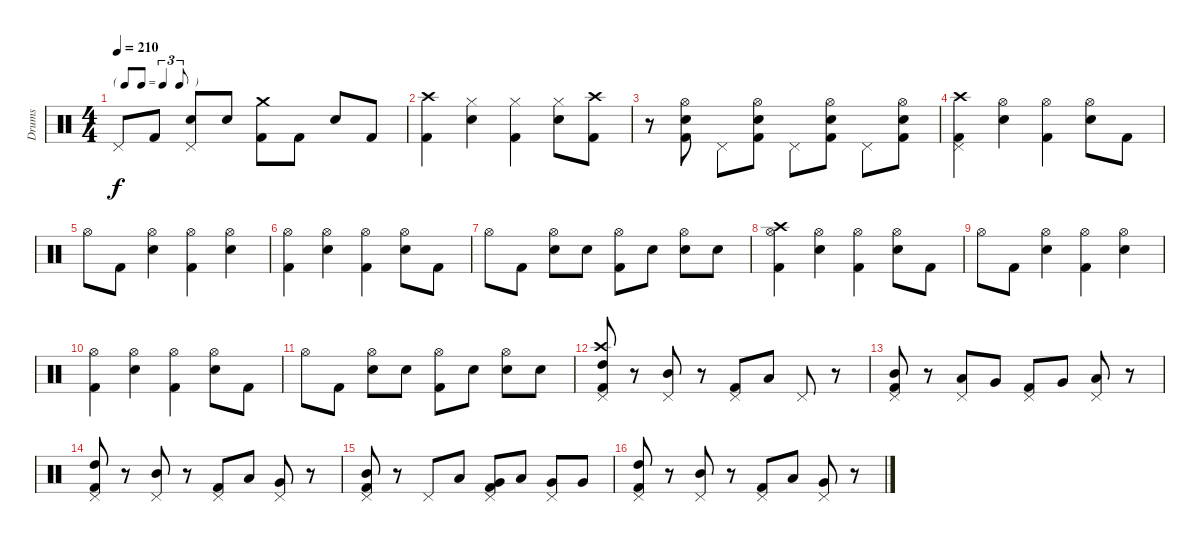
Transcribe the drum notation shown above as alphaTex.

\track ("Drums" "Drums") {instrument percussion}
\staff {score}
\articulation defaults
\ts (4 4)
\tf triplet8th
\tempo 210
\clef neutral
\ks c "Pedal Hi-Hat (hit)".8{dy f} "Kick (hit) 2".8
("Pedal Hi-Hat (hit)" "Snare (hit) 2").8 "Snare (hit) 2".8 ("Crash medium (hit)" "Kick (hit) 2").8 "Kick (hit) 2".8 "Snare (hit) 2".8 "Kick (hit) 2".8 |
("Crash high (hit)" "Kick (hit) 2").4 ("Hi-Hat (closed)" "Snare (hit) 2").4 ("Hi-Hat (closed)" "Kick (hit) 2").4 ("Hi-Hat (closed)" "Snare (hit) 2").8 ("Crash high (hit)" "Kick (hit) 2").8 |
r.8 ("Hi-Hat (open)" "Snare (hit) 2" "Kick (hit) 2").8 "Pedal Hi-Hat (hit)".8 ("Hi-Hat (open)" "Snare (hit) 2" "Kick (hit) 2").8 "Pedal Hi-Hat (hit)".8 ("Hi-Hat (open)" "Snare (hit) 2" "Kick (hit) 2").8 "Pedal Hi-Hat (hit)".8 ("Hi-Hat (open)" "Snare (hit) 2" "Kick (hit) 2").8 |
("Crash high (hit)" "Pedal Hi-Hat (hit)" "Kick (hit) 2").4 ("Hi-Hat (open)" "Snare (hit) 2").4 ("Hi-Hat (open)" "Kick (hit) 2").4 ("Hi-Hat (open)" "Snare (hit) 2").8 "Kick (hit) 2".8 |
"Hi-Hat (open)".8 "Kick (hit) 2".8 ("Hi-Hat (open)" "Snare (hit) 2").4 ("Hi-Hat (open)" "Kick (hit) 2").4 ("Hi-Hat (open)" "Snare (hit) 2").4 |
("Hi-Hat (open)" "Kick (hit) 2").4 ("Hi-Hat (open)" "Snare (hit) 2").4 ("Hi-Hat (open)" "Kick (hit) 2").4 ("Hi-Hat (open)" "Snare (hit) 2").8 "Kick (hit) 2".8 |
"Hi-Hat (open)".8 "Kick (hit) 2".8 ("Hi-Hat (open)" "Snare (hit) 2").8 "Snare (hit) 2".8 ("Hi-Hat (open)" "Kick (hit) 2").8 "Snare (hit) 2".8 ("Hi-Hat (open)" "Snare (hit) 2").8 "Snare (hit) 2".8 |
("Crash high (hit)" "Hi-Hat (open)" "Kick (hit) 2").4 ("Hi-Hat (open)" "Snare (hit) 2").4 ("Hi-Hat (open)" "Kick (hit) 2").4 ("Hi-Hat (open)" "Snare (hit) 2").8 "Kick (hit) 2".8 |
"Hi-Hat (open)".8 "Kick (hit) 2".8 ("Hi-Hat (open)" "Snare (hit) 2").4 ("Hi-Hat (open)" "Kick (hit) 2").4 ("Hi-Hat (open)" "Snare (hit) 2").4 |
("Hi-Hat (open)" "Kick (hit) 2").4 ("Hi-Hat (open)" "Snare (hit) 2").4 ("Hi-Hat (open)" "Kick (hit) 2").4 ("Hi-Hat (open)" "Snare (hit) 2").8 "Kick (hit) 2".8 |
"Hi-Hat (open)".8 "Kick (hit) 2".8 ("Hi-Hat (open)" "Snare (hit) 2").8 "Snare (hit) 2".8 ("Hi-Hat (open)" "Kick (hit) 2").8 "Snare (hit) 2".8 ("Hi-Hat (open)" "Snare (hit) 2").8 "Snare (hit) 2".8 |
("Crash high (hit)" "Pedal Hi-Hat (hit)" "High Tom (hit)" "Kick (hit) 2").8 r.8 ("Pedal Hi-Hat (hit)" "Mid Tom (hit)").8 r.8 ("Pedal Hi-Hat (hit)" "Kick (hit) 2").8 "Low Tom (hit)".8 "Pedal Hi-Hat (hit)".8 r.8 |
("Pedal Hi-Hat (hit)" "Mid Tom (hit)" "Kick (hit) 2").8 r.8 ("Pedal Hi-Hat (hit)" "Low Tom (hit)").8 "Very Low Tom (hit)".8 ("Pedal Hi-Hat (hit)" "Kick (hit) 2").8 "Very Low Tom (hit)".8 ("Pedal Hi-Hat (hit)" "Low Floor Tom (hit)").8 r.8 |
("Pedal Hi-Hat (hit)" "High Tom (hit)" "Kick (hit) 2").8 r.8 ("Pedal Hi-Hat (hit)" "Mid Tom (hit)").8 r.8 ("Pedal Hi-Hat (hit)" "Kick (hit) 2").8 "Low Tom (hit)".8 ("Pedal Hi-Hat (hit)" "Very Low Tom (hit)").8 r.8 |
("Pedal Hi-Hat (hit)" "Mid Tom (hit)" "Kick (hit) 2").8 r.8 "Pedal Hi-Hat (hit)".8 "Low Tom (hit)".8 ("Pedal Hi-Hat (hit)" "Very Low Tom (hit)" "Kick (hit) 2").8 "Low Tom (hit)".8 ("Pedal Hi-Hat (hit)" "Very Low Tom (hit)").8 "Very Low Tom (hit)".8 |
("Pedal Hi-Hat (hit)" "High Tom (hit)" "Kick (hit) 2").8 r.8 ("Pedal Hi-Hat (hit)" "Mid Tom (hit)").8 r.8 ("Pedal Hi-Hat (hit)" "Kick (hit) 2").8 "Low Tom (hit)".8 ("Pedal Hi-Hat (hit)" "Very Low Tom (hit)").8 r.8
